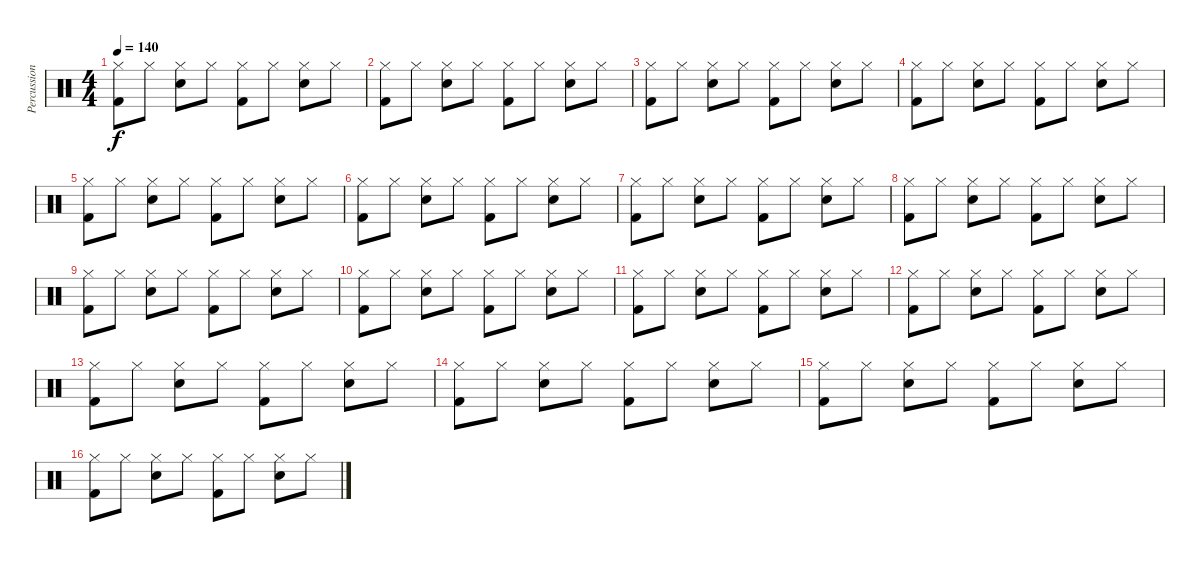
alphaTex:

\track ("Percussion" "Percussion") {instrument percussion}
\staff {score}
\articulation defaults
\ts (4 4)
\tempo 140
\clef neutral
\ks c
("Hi-Hat (closed)" "Kick (hit) 2").8{dy f} "Hi-Hat (closed)".8 ("Hi-Hat (closed)" "Snare (hit) 2").8 "Hi-Hat (closed)".8 ("Hi-Hat (closed)" "Kick (hit) 2").8 "Hi-Hat (closed)".8 ("Hi-Hat (closed)" "Snare (hit) 2").8 "Hi-Hat (closed)".8 |
("Hi-Hat (closed)" "Kick (hit) 2").8 "Hi-Hat (closed)".8 ("Hi-Hat (closed)" "Snare (hit) 2").8 "Hi-Hat (closed)".8 ("Hi-Hat (closed)" "Kick (hit) 2").8 "Hi-Hat (closed)".8 ("Hi-Hat (closed)" "Snare (hit) 2").8 "Hi-Hat (closed)".8 |
("Hi-Hat (closed)" "Kick (hit) 2").8 "Hi-Hat (closed)".8 ("Hi-Hat (closed)" "Snare (hit) 2").8 "Hi-Hat (closed)".8 ("Hi-Hat (closed)" "Kick (hit) 2").8 "Hi-Hat (closed)".8 ("Hi-Hat (closed)" "Snare (hit) 2").8 "Hi-Hat (closed)".8 |
("Hi-Hat (closed)" "Kick (hit) 2").8 "Hi-Hat (closed)".8 ("Hi-Hat (closed)" "Snare (hit) 2").8 "Hi-Hat (closed)".8 ("Hi-Hat (closed)" "Kick (hit) 2").8 "Hi-Hat (closed)".8 ("Hi-Hat (closed)" "Snare (hit) 2").8 "Hi-Hat (closed)".8 |
("Hi-Hat (closed)" "Kick (hit) 2").8 "Hi-Hat (closed)".8 ("Hi-Hat (closed)" "Snare (hit) 2").8 "Hi-Hat (closed)".8 ("Hi-Hat (closed)" "Kick (hit) 2").8 "Hi-Hat (closed)".8 ("Hi-Hat (closed)" "Snare (hit) 2").8 "Hi-Hat (closed)".8 |
("Hi-Hat (closed)" "Kick (hit) 2").8 "Hi-Hat (closed)".8 ("Hi-Hat (closed)" "Snare (hit) 2").8 "Hi-Hat (closed)".8 ("Hi-Hat (closed)" "Kick (hit) 2").8 "Hi-Hat (closed)".8 ("Hi-Hat (closed)" "Snare (hit) 2").8 "Hi-Hat (closed)".8 |
("Hi-Hat (closed)" "Kick (hit) 2").8 "Hi-Hat (closed)".8 ("Hi-Hat (closed)" "Snare (hit) 2").8 "Hi-Hat (closed)".8 ("Hi-Hat (closed)" "Kick (hit) 2").8 "Hi-Hat (closed)".8 ("Hi-Hat (closed)" "Snare (hit) 2").8 "Hi-Hat (closed)".8 |
("Hi-Hat (closed)" "Kick (hit) 2").8 "Hi-Hat (closed)".8 ("Hi-Hat (closed)" "Snare (hit) 2").8 "Hi-Hat (closed)".8 ("Hi-Hat (closed)" "Kick (hit) 2").8 "Hi-Hat (closed)".8 ("Hi-Hat (closed)" "Snare (hit) 2").8 "Hi-Hat (closed)".8 |
("Hi-Hat (closed)" "Kick (hit) 2").8 "Hi-Hat (closed)".8 ("Hi-Hat (closed)" "Snare (hit) 2").8 "Hi-Hat (closed)".8 ("Hi-Hat (closed)" "Kick (hit) 2").8 "Hi-Hat (closed)".8 ("Hi-Hat (closed)" "Snare (hit) 2").8 "Hi-Hat (closed)".8 |
("Hi-Hat (closed)" "Kick (hit) 2").8 "Hi-Hat (closed)".8 ("Hi-Hat (closed)" "Snare (hit) 2").8 "Hi-Hat (closed)".8 ("Hi-Hat (closed)" "Kick (hit) 2").8 "Hi-Hat (closed)".8 ("Hi-Hat (closed)" "Snare (hit) 2").8 "Hi-Hat (closed)".8 |
("Hi-Hat (closed)" "Kick (hit) 2").8 "Hi-Hat (closed)".8 ("Hi-Hat (closed)" "Snare (hit) 2").8 "Hi-Hat (closed)".8 ("Hi-Hat (closed)" "Kick (hit) 2").8 "Hi-Hat (closed)".8 ("Hi-Hat (closed)" "Snare (hit) 2").8 "Hi-Hat (closed)".8 |
("Hi-Hat (closed)" "Kick (hit) 2").8 "Hi-Hat (closed)".8 ("Hi-Hat (closed)" "Snare (hit) 2").8 "Hi-Hat (closed)".8 ("Hi-Hat (closed)" "Kick (hit) 2").8 "Hi-Hat (closed)".8 ("Hi-Hat (closed)" "Snare (hit) 2").8 "Hi-Hat (closed)".8 |
("Hi-Hat (closed)" "Kick (hit) 2").8 "Hi-Hat (closed)".8 ("Hi-Hat (closed)" "Snare (hit) 2").8 "Hi-Hat (closed)".8 ("Hi-Hat (closed)" "Kick (hit) 2").8 "Hi-Hat (closed)".8 ("Hi-Hat (closed)" "Snare (hit) 2").8 "Hi-Hat (closed)".8 |
("Hi-Hat (closed)" "Kick (hit) 2").8 "Hi-Hat (closed)".8 ("Hi-Hat (closed)" "Snare (hit) 2").8 "Hi-Hat (closed)".8 ("Hi-Hat (closed)" "Kick (hit) 2").8 "Hi-Hat (closed)".8 ("Hi-Hat (closed)" "Snare (hit) 2").8 "Hi-Hat (closed)".8 |
("Hi-Hat (closed)" "Kick (hit) 2").8 "Hi-Hat (closed)".8 ("Hi-Hat (closed)" "Snare (hit) 2").8 "Hi-Hat (closed)".8 ("Hi-Hat (closed)" "Kick (hit) 2").8 "Hi-Hat (closed)".8 ("Hi-Hat (closed)" "Snare (hit) 2").8 "Hi-Hat (closed)".8 |
("Hi-Hat (closed)" "Kick (hit) 2").8 "Hi-Hat (closed)".8 ("Hi-Hat (closed)" "Snare (hit) 2").8 "Hi-Hat (closed)".8 ("Hi-Hat (closed)" "Kick (hit) 2").8 "Hi-Hat (closed)".8 ("Hi-Hat (closed)" "Snare (hit) 2").8 "Hi-Hat (closed)".8
